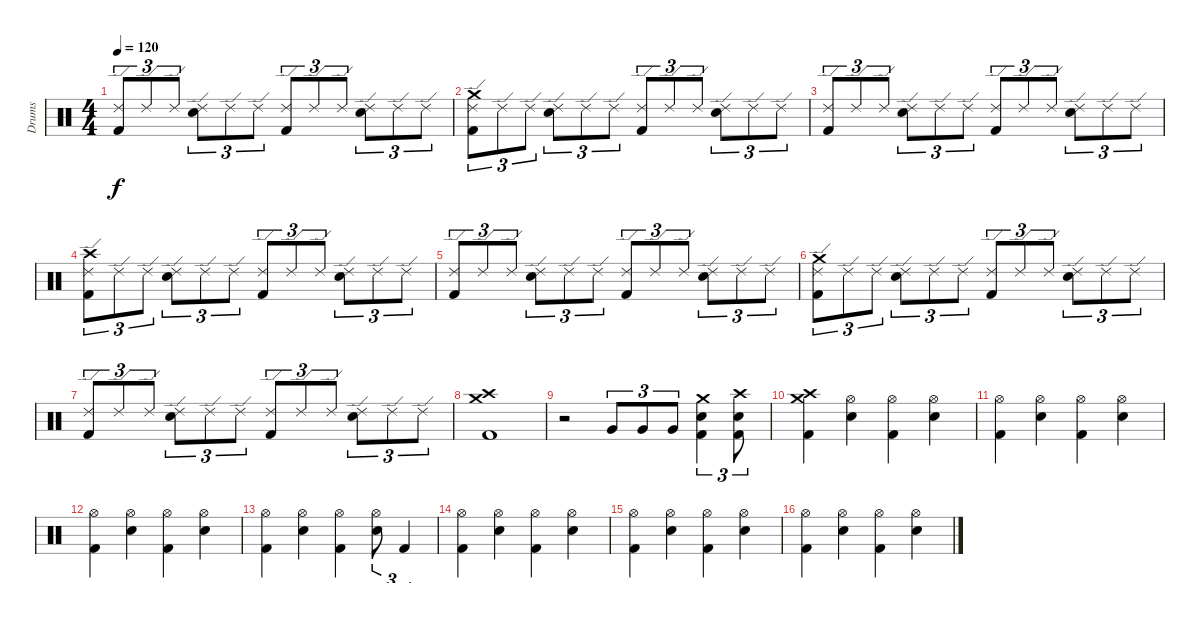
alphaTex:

\track ("Drums" "Drums") {instrument percussion}
\staff {score}
\articulation defaults
\ts (4 4)
\tempo 120
\clef neutral
\ks c
("Kick (hit) 2" "Ride (edge) 2").8{tu (3 2) dy f} "Ride (edge) 2".8{tu (3 2)} "Ride (edge) 2".8{tu (3 2)} ("Snare (hit) 2" "Ride (edge) 2").8{tu (3 2)} "Ride (edge) 2".8{tu (3 2)} "Ride (edge) 2".8{tu (3 2)} ("Kick (hit) 2" "Ride (edge) 2").8{tu (3 2)} "Ride (edge) 2".8{tu (3 2)} "Ride (edge) 2".8{tu (3 2)} ("Snare (hit) 2" "Ride (edge) 2").8{tu (3 2)} "Ride (edge) 2".8{tu (3 2)} "Ride (edge) 2".8{tu (3 2)} |
("Kick (hit) 2" "Ride (edge) 2" "Crash medium (hit)").8{tu (3 2)} "Ride (edge) 2".8{tu (3 2)} "Ride (edge) 2".8{tu (3 2)} ("Snare (hit) 2" "Ride (edge) 2").8{tu (3 2)} "Ride (edge) 2".8{tu (3 2)} "Ride (edge) 2".8{tu (3 2)} ("Kick (hit) 2" "Ride (edge) 2").8{tu (3 2)} "Ride (edge) 2".8{tu (3 2)} "Ride (edge) 2".8{tu (3 2)} ("Snare (hit) 2" "Ride (edge) 2").8{tu (3 2)} "Ride (edge) 2".8{tu (3 2)} "Ride (edge) 2".8{tu (3 2)} |
("Kick (hit) 2" "Ride (edge) 2").8{tu (3 2)} "Ride (edge) 2".8{tu (3 2)} "Ride (edge) 2".8{tu (3 2)} ("Snare (hit) 2" "Ride (edge) 2").8{tu (3 2)} "Ride (edge) 2".8{tu (3 2)} "Ride (edge) 2".8{tu (3 2)} ("Kick (hit) 2" "Ride (edge) 2").8{tu (3 2)} "Ride (edge) 2".8{tu (3 2)} "Ride (edge) 2".8{tu (3 2)} ("Snare (hit) 2" "Ride (edge) 2").8{tu (3 2)} "Ride (edge) 2".8{tu (3 2)} "Ride (edge) 2".8{tu (3 2)} |
("Kick (hit) 2" "Ride (edge) 2" "Crash high (hit)").8{tu (3 2)} "Ride (edge) 2".8{tu (3 2)} "Ride (edge) 2".8{tu (3 2)} ("Snare (hit) 2" "Ride (edge) 2").8{tu (3 2)} "Ride (edge) 2".8{tu (3 2)} "Ride (edge) 2".8{tu (3 2)} ("Kick (hit) 2" "Ride (edge) 2").8{tu (3 2)} "Ride (edge) 2".8{tu (3 2)} "Ride (edge) 2".8{tu (3 2)} ("Snare (hit) 2" "Ride (edge) 2").8{tu (3 2)} "Ride (edge) 2".8{tu (3 2)} "Ride (edge) 2".8{tu (3 2)} |
("Kick (hit) 2" "Ride (edge) 2").8{tu (3 2)} "Ride (edge) 2".8{tu (3 2)} "Ride (edge) 2".8{tu (3 2)} ("Snare (hit) 2" "Ride (edge) 2").8{tu (3 2)} "Ride (edge) 2".8{tu (3 2)} "Ride (edge) 2".8{tu (3 2)} ("Kick (hit) 2" "Ride (edge) 2").8{tu (3 2)} "Ride (edge) 2".8{tu (3 2)} "Ride (edge) 2".8{tu (3 2)} ("Snare (hit) 2" "Ride (edge) 2").8{tu (3 2)} "Ride (edge) 2".8{tu (3 2)} "Ride (edge) 2".8{tu (3 2)} |
("Kick (hit) 2" "Ride (edge) 2" "Crash medium (hit)").8{tu (3 2)} "Ride (edge) 2".8{tu (3 2)} "Ride (edge) 2".8{tu (3 2)} ("Snare (hit) 2" "Ride (edge) 2").8{tu (3 2)} "Ride (edge) 2".8{tu (3 2)} "Ride (edge) 2".8{tu (3 2)} ("Kick (hit) 2" "Ride (edge) 2").8{tu (3 2)} "Ride (edge) 2".8{tu (3 2)} "Ride (edge) 2".8{tu (3 2)} ("Snare (hit) 2" "Ride (edge) 2").8{tu (3 2)} "Ride (edge) 2".8{tu (3 2)} "Ride (edge) 2".8{tu (3 2)} |
("Kick (hit) 2" "Ride (edge) 2").8{tu (3 2)} "Ride (edge) 2".8{tu (3 2)} "Ride (edge) 2".8{tu (3 2)} ("Snare (hit) 2" "Ride (edge) 2").8{tu (3 2)} "Ride (edge) 2".8{tu (3 2)} "Ride (edge) 2".8{tu (3 2)} ("Kick (hit) 2" "Ride (edge) 2").8{tu (3 2)} "Ride (edge) 2".8{tu (3 2)} "Ride (edge) 2".8{tu (3 2)} ("Snare (hit) 2" "Ride (edge) 2").8{tu (3 2)} "Ride (edge) 2".8{tu (3 2)} "Ride (edge) 2".8{tu (3 2)} |
("Kick (hit) 2" "Crash high (hit)" "Crash medium (hit)").1 |
r.2 "Very Low Tom (hit)".8{tu (3 2)} "Very Low Tom (hit)".8{tu (3 2)} "Very Low Tom (hit)".8{tu (3 2)} ("Kick (hit) 2" "Snare (hit) 2" "Crash medium (hit)").4{tu (3 2)} ("Kick (hit) 2" "Snare (hit) 2" "Crash high (hit)").8{tu (3 2)} |
("Kick (hit) 2" "Crash high (hit)" "Crash medium (hit)").4 ("Snare (hit) 2" "Hi-Hat (open)").4 ("Kick (hit) 2" "Hi-Hat (open)").4 ("Snare (hit) 2" "Hi-Hat (open)").4 |
("Kick (hit) 2" "Hi-Hat (open)").4 ("Snare (hit) 2" "Hi-Hat (open)").4 ("Kick (hit) 2" "Hi-Hat (open)").4 ("Snare (hit) 2" "Hi-Hat (open)").4 |
("Kick (hit) 2" "Hi-Hat (open)").4 ("Snare (hit) 2" "Hi-Hat (open)").4 ("Kick (hit) 2" "Hi-Hat (open)").4 ("Snare (hit) 2" "Hi-Hat (open)").4 |
("Kick (hit) 2" "Hi-Hat (open)").4 ("Snare (hit) 2" "Hi-Hat (open)").4 ("Kick (hit) 2" "Hi-Hat (open)").4 ("Snare (hit) 2" "Hi-Hat (open)").8{tu (3 2)} "Kick (hit) 2".4{tu (3 2)} |
("Kick (hit) 2" "Hi-Hat (open)").4 ("Snare (hit) 2" "Hi-Hat (open)").4 ("Kick (hit) 2" "Hi-Hat (open)").4 ("Snare (hit) 2" "Hi-Hat (open)").4 |
("Kick (hit) 2" "Hi-Hat (open)").4 ("Snare (hit) 2" "Hi-Hat (open)").4 ("Kick (hit) 2" "Hi-Hat (open)").4 ("Snare (hit) 2" "Hi-Hat (open)").4 |
("Kick (hit) 2" "Hi-Hat (open)").4 ("Snare (hit) 2" "Hi-Hat (open)").4 ("Kick (hit) 2" "Hi-Hat (open)").4 ("Snare (hit) 2" "Hi-Hat (open)").4
